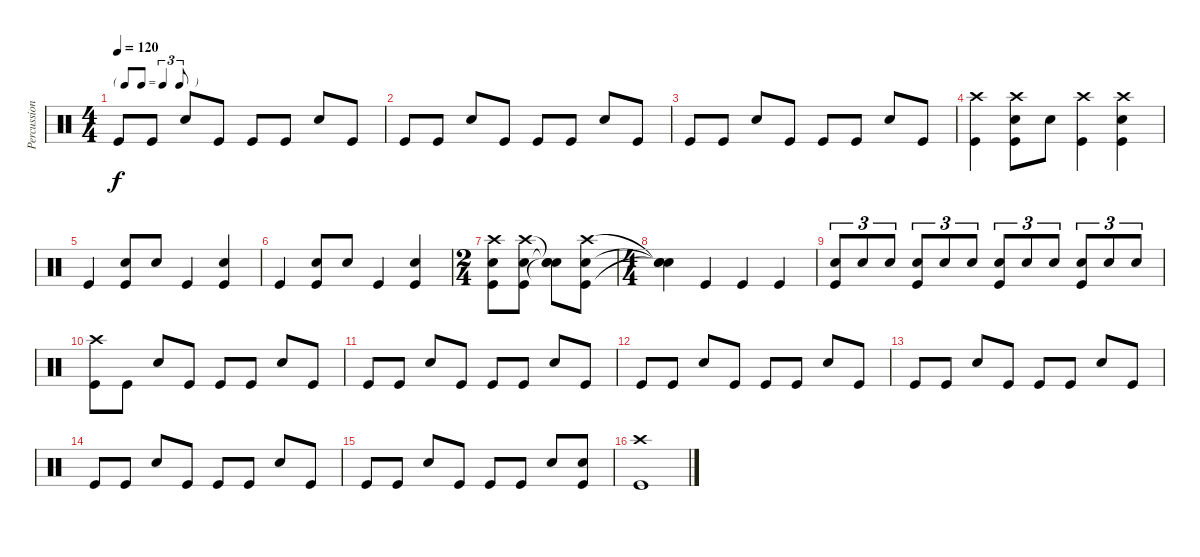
\track ("Percussion" "Percussion") {instrument percussion}
\staff {score}
\articulation defaults
\ts (4 4)
\tf triplet8th
\tempo 120
\clef neutral
\ks c "Kick (hit)".8{dy f} "Kick (hit)".8 "Snare (hit) 2".8 "Kick (hit)".8 "Kick (hit)".8 "Kick (hit)".8 "Snare (hit) 2".8 "Kick (hit)".8
|
"Kick (hit)".8 "Kick (hit)".8 "Snare (hit) 2".8 "Kick (hit)".8 "Kick (hit)".8 "Kick (hit)".8 "Snare (hit) 2".8 "Kick (hit)".8 |
"Kick (hit)".8 "Kick (hit)".8 "Snare (hit) 2".8 "Kick (hit)".8 "Kick (hit)".8 "Kick (hit)".8 "Snare (hit) 2".8 "Kick (hit)".8 |
("Crash high (hit)" "Kick (hit)").4 ("Crash high (hit)" "Snare (hit) 2" "Kick (hit)").8 "Snare (hit) 2".8 ("Crash high (hit)" "Kick (hit)").4 ("Crash high (hit)" "Snare (hit) 2" "Kick (hit)").4 |
"Kick (hit)".4 ("Snare (hit) 2" "Kick (hit)").8 "Snare (hit) 2".8 "Kick (hit)".4 ("Snare (hit) 2" "Kick (hit)").4 |
"Kick (hit)".4 ("Snare (hit) 2" "Kick (hit)").8 "Snare (hit) 2".8 "Kick (hit)".4 ("Snare (hit) 2" "Kick (hit)").4 |
\ts (2 4)
("Crash high (hit)" "Snare (hit) 2" "Kick (hit)").8 ("Crash high (hit)" "Snare (hit) 2" "Kick (hit)").8 ("Snare (hit)"{t} "Snare (hit)"{t} "Snare (hit)"{t}).8 ("Crash high (hit)" "Snare (hit) 2" "Kick (hit)").8 |
\ts (4 4)
("Snare (hit)"{t} "Snare (hit)"{t} "Snare (hit)"{t}).4 "Kick (hit)".4 "Kick (hit)".4 "Kick (hit)".4 |
("Snare (hit) 2" "Kick (hit)").8{tu (3 2)} "Snare (hit) 2".8{tu (3 2)} "Snare (hit) 2".8{tu (3 2)} ("Snare (hit) 2" "Kick (hit)").8{tu (3 2)} "Snare (hit) 2".8{tu (3 2)} "Snare (hit) 2".8{tu (3 2)} ("Snare (hit) 2" "Kick (hit)").8{tu (3 2)} "Snare (hit) 2".8{tu (3 2)} "Snare (hit) 2".8{tu (3 2)} ("Snare (hit) 2" "Kick (hit)").8{tu (3 2)} "Snare (hit) 2".8{tu (3 2)} "Snare (hit) 2".8{tu (3 2)} |
("Crash high (hit)" "Kick (hit)").8 "Kick (hit)".8 "Snare (hit) 2".8 "Kick (hit)".8 "Kick (hit)".8 "Kick (hit)".8 "Snare (hit) 2".8 "Kick (hit)".8 |
"Kick (hit)".8 "Kick (hit)".8 "Snare (hit) 2".8 "Kick (hit)".8 "Kick (hit)".8 "Kick (hit)".8 "Snare (hit) 2".8 "Kick (hit)".8 |
"Kick (hit)".8 "Kick (hit)".8 "Snare (hit) 2".8 "Kick (hit)".8 "Kick (hit)".8 "Kick (hit)".8 "Snare (hit) 2".8 "Kick (hit)".8 |
"Kick (hit)".8 "Kick (hit)".8 "Snare (hit) 2".8 "Kick (hit)".8 "Kick (hit)".8 "Kick (hit)".8 "Snare (hit) 2".8 "Kick (hit)".8 |
"Kick (hit)".8 "Kick (hit)".8 "Snare (hit) 2".8 "Kick (hit)".8 "Kick (hit)".8 "Kick (hit)".8 "Snare (hit) 2".8 "Kick (hit)".8 |
"Kick (hit)".8 "Kick (hit)".8 "Snare (hit) 2".8 "Kick (hit)".8 "Kick (hit)".8 "Kick (hit)".8 "Snare (hit) 2".8 ("Snare (hit) 2" "Kick (hit)").8 |
("Crash high (hit)" "Kick (hit)").1
